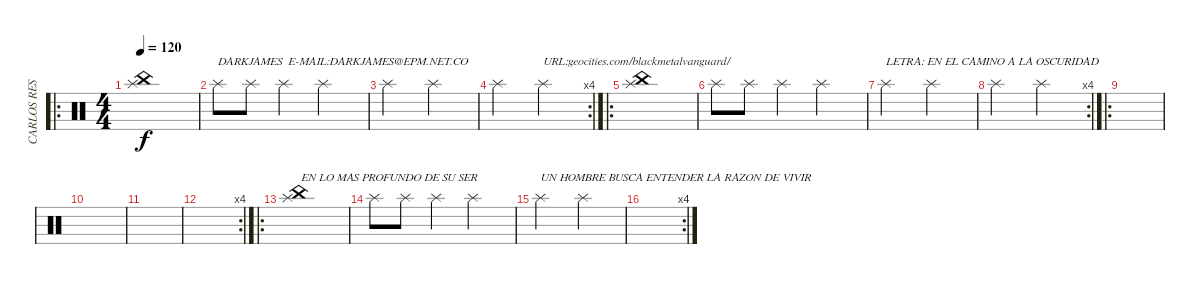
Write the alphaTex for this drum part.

\track ("CARLOS RESTREPO DARK  BATERIA" "CARLOS RES") {instrument percussion}
\staff {score}
\articulation defaults
\ro
\ts (4 4)
\tempo 120
\clef neutral
\ks c
("Splash (hit)" "China (hit)").1{dy f} |
"Splash (hit)".8{txt "DARKJAMES  E-MAIL:DARKJAMES@EPM.NET.CO"} "Splash (hit)".8 "Splash (hit)".4 "Splash (hit)".2 |
"Splash (hit)".2 "Splash (hit)".2 |
\rc 4 "Splash (hit)".2 "Splash (hit)".2{txt "URL:geocities.com/blackmetalvanguard/"}
|
\ro
("Splash (hit)" "China (hit)").1 |
"Splash (hit)".8 "Splash (hit)".8 "Splash (hit)".4 "Splash (hit)".2 |
"Splash (hit)".2{txt "LETRA: EN EL CAMINO A LA OSCURIDAD "} "Splash (hit)".2 |
\rc 4 "Splash (hit)".2 "Splash (hit)".2
|
\ro
|
|
|
\rc 4
|
\ro
("Splash (hit)" "China (hit)").1{txt "EN LO MAS PROFUNDO DE SU SER "} |
"Splash (hit)".8 "Splash (hit)".8 "Splash (hit)".4 "Splash (hit)".2 |
"Splash (hit)".2{txt "UN HOMBRE BUSCA ENTENDER LA RAZON DE VIVIR"} "Splash (hit)".2 |
\rc 4
